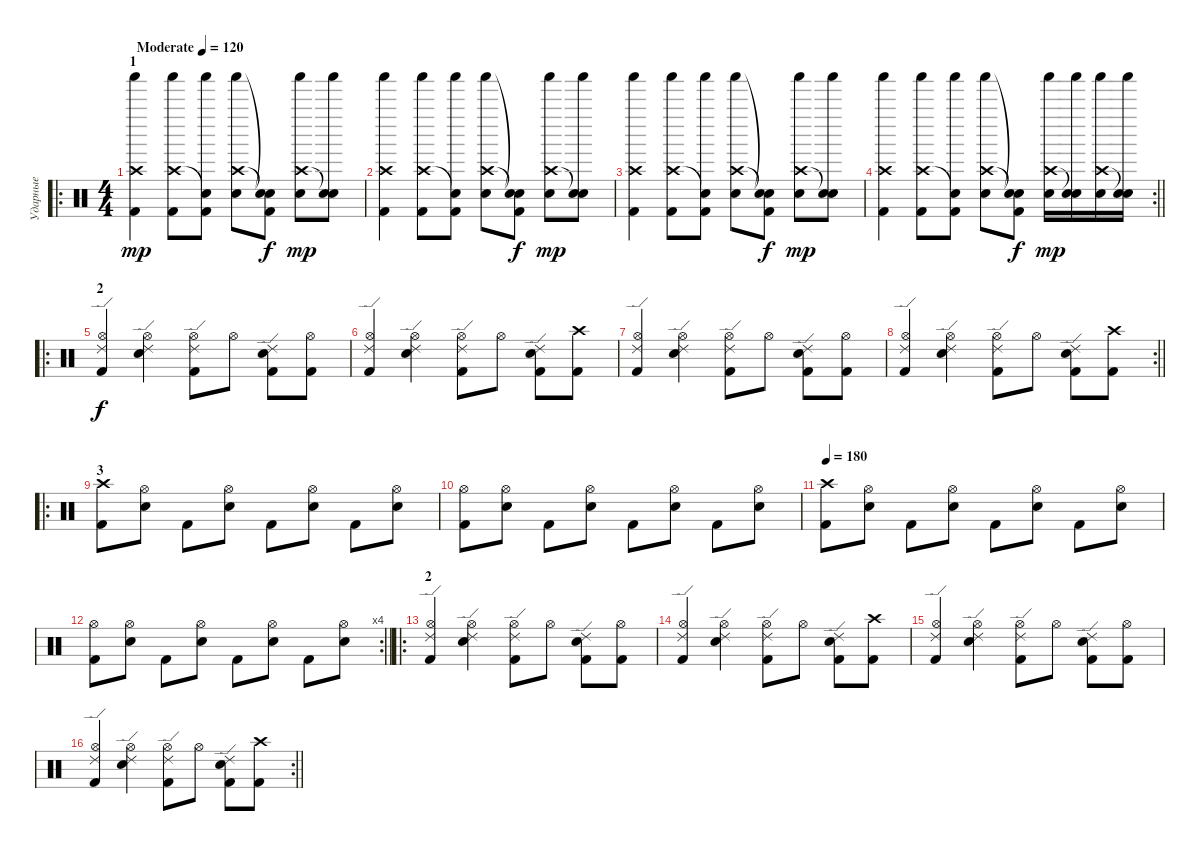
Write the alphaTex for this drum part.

\track ("Ударные" "Ударные") {instrument percussion}
\staff {score}
\articulation defaults
\ro
\ts (4 4)
\section ("" "1")
\tempo (120 "Moderate")
\tempo 180
\tempo (120 "Moderate")
\clef neutral
\ks c
("Crash high (hit)" "Shaker (hit)" "Kick (hit) 2").4{dy mp} ("Crash high (hit)" "Shaker (hit)" "Kick (hit) 2").8 ("Snare (hit)"{t} "Shaker (hit)" "Kick (hit) 2").8 ("Crash high (hit)" "Shaker (hit)" "Electric Snare (hit)").8 ("Snare (hit)"{t} "Snare (hit)"{t} "Kick (hit) 2").8{dy f} ("Crash high (hit)" "Shaker (hit)" "Electric Snare (hit)").8{dy mp} ("Snare (hit)"{t} "Shaker (hit)" "Electric Snare (hit)").8 |
("Crash high (hit)" "Shaker (hit)" "Kick (hit) 2").4 ("Crash high (hit)" "Shaker (hit)" "Kick (hit) 2").8 ("Snare (hit)"{t} "Shaker (hit)" "Kick (hit) 2").8 ("Crash high (hit)" "Shaker (hit)" "Electric Snare (hit)").8 ("Snare (hit)"{t} "Snare (hit)"{t} "Kick (hit) 2").8{dy f} ("Crash high (hit)" "Shaker (hit)" "Electric Snare (hit)").8{dy mp} ("Snare (hit)"{t} "Shaker (hit)" "Electric Snare (hit)").8 |
("Crash high (hit)" "Shaker (hit)" "Kick (hit) 2").4 ("Crash high (hit)" "Shaker (hit)" "Kick (hit) 2").8 ("Snare (hit)"{t} "Shaker (hit)" "Kick (hit) 2").8 ("Crash high (hit)" "Shaker (hit)" "Electric Snare (hit)").8 ("Snare (hit)"{t} "Snare (hit)"{t} "Kick (hit) 2").8{dy f} ("Crash high (hit)" "Shaker (hit)" "Electric Snare (hit)").8{dy mp} ("Snare (hit)"{t} "Shaker (hit)" "Electric Snare (hit)").8 |
\rc 2
\barLineRight lightlight
("Crash high (hit)" "Shaker (hit)" "Kick (hit) 2").4 ("Crash high (hit)" "Shaker (hit)" "Kick (hit) 2").8 ("Snare (hit)"{t} "Shaker (hit)" "Kick (hit) 2").8 ("Crash high (hit)" "Shaker (hit)" "Electric Snare (hit)").8 ("Snare (hit)"{t} "Snare (hit)"{t} "Kick (hit) 2").8{dy f} ("Crash high (hit)" "Shaker (hit)" "Electric Snare (hit)").16{dy mp} ("Snare (hit)"{t} "Shaker (hit)" "Electric Snare (hit)").16 ("Crash high (hit)" "Shaker (hit)" "Electric Snare (hit)").16 ("Snare (hit)"{t} "Shaker (hit)" "Electric Snare (hit)").16 |
\ro
\section ("" "2")
("Hi-Hat (open)" "Ride (edge) 2" "Kick (hit) 2").4{dy f} ("Hi-Hat (open)" "Snare (hit) 2" "Ride (edge) 2").4 ("Hi-Hat (open)" "Ride (edge) 2" "Kick (hit) 2").8 "Hi-Hat (open)".8 ("Snare (hit) 2" "Ride (edge) 2" "Kick (hit) 2").8 ("Hi-Hat (open)" "Kick (hit) 2").8 |
("Hi-Hat (open)" "Ride (edge) 2" "Kick (hit) 2").4 ("Hi-Hat (open)" "Snare (hit) 2" "Ride (edge) 2").4 ("Hi-Hat (open)" "Ride (edge) 2" "Kick (hit) 2").8 "Hi-Hat (open)".8 ("Snare (hit) 2" "Ride (edge) 2" "Kick (hit) 2").8 ("Crash high (hit)" "Kick (hit) 2").8 |
("Hi-Hat (open)" "Ride (edge) 2" "Kick (hit) 2").4 ("Hi-Hat (open)" "Snare (hit) 2" "Ride (edge) 2").4 ("Hi-Hat (open)" "Ride (edge) 2" "Kick (hit) 2").8 "Hi-Hat (open)".8 ("Snare (hit) 2" "Ride (edge) 2" "Kick (hit) 2").8 ("Hi-Hat (open)" "Kick (hit) 2").8 |
\rc 2
\barLineRight lightlight
("Hi-Hat (open)" "Ride (edge) 2" "Kick (hit) 2").4 ("Hi-Hat (open)" "Snare (hit) 2" "Ride (edge) 2").4 ("Hi-Hat (open)" "Ride (edge) 2" "Kick (hit) 2").8 "Hi-Hat (open)".8 ("Snare (hit) 2" "Ride (edge) 2" "Kick (hit) 2").8 ("Crash high (hit)" "Kick (hit) 2").8 |
\ro
\section ("" "3")
("Crash high (hit)" "Kick (hit) 2").8 ("Hi-Hat (open)" "Electric Snare (hit)").8 "Kick (hit) 2".8 ("Hi-Hat (open)" "Electric Snare (hit)").8 "Kick (hit) 2".8 ("Hi-Hat (open)" "Electric Snare (hit)").8 "Kick (hit) 2".8 ("Hi-Hat (open)" "Electric Snare (hit)").8 |
("Hi-Hat (open)" "Kick (hit) 2").8 ("Hi-Hat (open)" "Electric Snare (hit)").8 "Kick (hit) 2".8 ("Hi-Hat (open)" "Electric Snare (hit)").8 "Kick (hit) 2".8 ("Hi-Hat (open)" "Electric Snare (hit)").8 "Kick (hit) 2".8 ("Hi-Hat (open)" "Electric Snare (hit)").8 |
\tempo 180
("Crash high (hit)" "Kick (hit) 2").8 ("Hi-Hat (open)" "Electric Snare (hit)").8 "Kick (hit) 2".8 ("Hi-Hat (open)" "Electric Snare (hit)").8 "Kick (hit) 2".8 ("Hi-Hat (open)" "Electric Snare (hit)").8 "Kick (hit) 2".8 ("Hi-Hat (open)" "Electric Snare (hit)").8 |
\rc 4
\barLineRight lightlight
("Hi-Hat (open)" "Kick (hit) 2").8 ("Hi-Hat (open)" "Electric Snare (hit)").8 "Kick (hit) 2".8 ("Hi-Hat (open)" "Electric Snare (hit)").8 "Kick (hit) 2".8 ("Hi-Hat (open)" "Electric Snare (hit)").8 "Kick (hit) 2".8 ("Hi-Hat (open)" "Electric Snare (hit)").8 |
\ro
\section ("" "2")
("Hi-Hat (open)" "Ride (edge) 2" "Kick (hit) 2").4 ("Hi-Hat (open)" "Snare (hit) 2" "Ride (edge) 2").4 ("Hi-Hat (open)" "Ride (edge) 2" "Kick (hit) 2").8 "Hi-Hat (open)".8 ("Snare (hit) 2" "Ride (edge) 2" "Kick (hit) 2").8 ("Hi-Hat (open)" "Kick (hit) 2").8 |
("Hi-Hat (open)" "Ride (edge) 2" "Kick (hit) 2").4 ("Hi-Hat (open)" "Snare (hit) 2" "Ride (edge) 2").4 ("Hi-Hat (open)" "Ride (edge) 2" "Kick (hit) 2").8 "Hi-Hat (open)".8 ("Snare (hit) 2" "Ride (edge) 2" "Kick (hit) 2").8 ("Crash high (hit)" "Kick (hit) 2").8 |
("Hi-Hat (open)" "Ride (edge) 2" "Kick (hit) 2").4 ("Hi-Hat (open)" "Snare (hit) 2" "Ride (edge) 2").4 ("Hi-Hat (open)" "Ride (edge) 2" "Kick (hit) 2").8 "Hi-Hat (open)".8 ("Snare (hit) 2" "Ride (edge) 2" "Kick (hit) 2").8 ("Hi-Hat (open)" "Kick (hit) 2").8 |
\rc 2
\barLineRight lightlight
("Hi-Hat (open)" "Ride (edge) 2" "Kick (hit) 2").4 ("Hi-Hat (open)" "Snare (hit) 2" "Ride (edge) 2").4 ("Hi-Hat (open)" "Ride (edge) 2" "Kick (hit) 2").8 "Hi-Hat (open)".8 ("Snare (hit) 2" "Ride (edge) 2" "Kick (hit) 2").8 ("Crash high (hit)" "Kick (hit) 2").8
